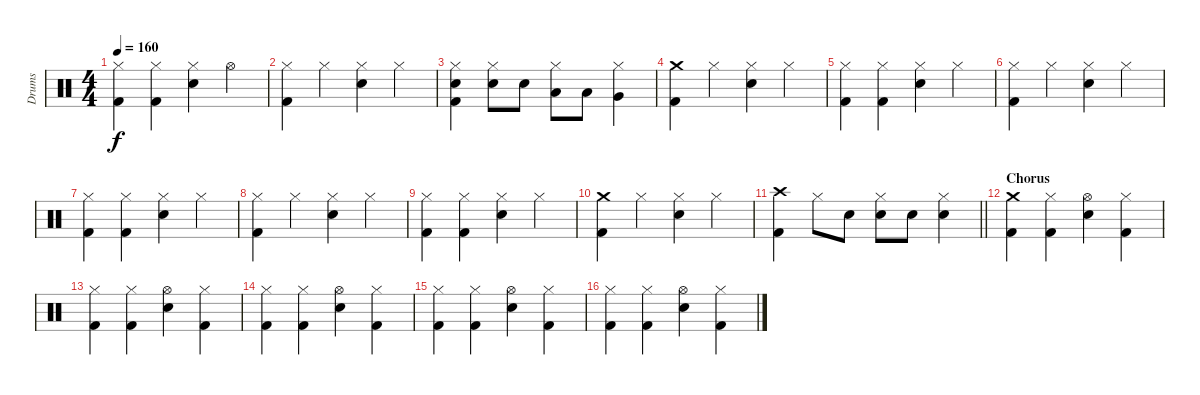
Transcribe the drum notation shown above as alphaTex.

\track ("Drums" "Drums") {instrument percussion}
\staff {score}
\articulation defaults
\ts (4 4)
\tempo 160
\clef neutral
\ks c
("Hi-Hat (closed)" "Kick (hit) 2").4{dy f} ("Hi-Hat (closed)" "Kick (hit) 2").4 ("Hi-Hat (closed)" "Snare (hit) 2").4 "Hi-Hat (open)".4 |
("Hi-Hat (closed)" "Kick (hit) 2").4 "Hi-Hat (closed)".4 ("Hi-Hat (closed)" "Snare (hit) 2").4 "Hi-Hat (closed)".4 |
("Hi-Hat (closed)" "Snare (hit) 2" "Kick (hit) 2").4 ("Hi-Hat (closed)" "Snare (hit) 2").8 "Snare (hit) 2".8 ("Hi-Hat (closed)" "Low Tom (hit)").8 "Low Floor Tom (hit)".8 ("Hi-Hat (closed)" "Very Low Tom (hit)").4 |
("Crash medium (hit)" "Kick (hit) 2").4 "Hi-Hat (closed)".4 ("Hi-Hat (closed)" "Snare (hit) 2").4 "Hi-Hat (closed)".4 |
("Hi-Hat (closed)" "Kick (hit) 2").4 ("Hi-Hat (closed)" "Kick (hit) 2").4 ("Hi-Hat (closed)" "Snare (hit) 2").4 "Hi-Hat (closed)".4 |
("Hi-Hat (closed)" "Kick (hit) 2").4 "Hi-Hat (closed)".4 ("Hi-Hat (closed)" "Snare (hit) 2").4 "Hi-Hat (closed)".4 |
("Hi-Hat (closed)" "Kick (hit) 2").4 ("Hi-Hat (closed)" "Kick (hit) 2").4 ("Hi-Hat (closed)" "Snare (hit) 2").4 "Hi-Hat (closed)".4 |
("Hi-Hat (closed)" "Kick (hit) 2").4 "Hi-Hat (closed)".4 ("Hi-Hat (closed)" "Snare (hit) 2").4 "Hi-Hat (closed)".4 |
("Hi-Hat (closed)" "Kick (hit) 2").4 ("Hi-Hat (closed)" "Kick (hit) 2").4 ("Hi-Hat (closed)" "Snare (hit) 2").4 "Hi-Hat (closed)".4 |
("Crash medium (hit)" "Kick (hit) 2").4 "Hi-Hat (closed)".4 ("Hi-Hat (closed)" "Snare (hit) 2").4 "Hi-Hat (closed)".4 |
\barLineRight lightlight
("Crash high (hit)" "Kick (hit) 2").4 "Hi-Hat (closed)".8 "Snare (hit) 2".8 ("Hi-Hat (closed)" "Snare (hit) 2").8 "Snare (hit) 2".8 ("Hi-Hat (closed)" "Snare (hit) 2").4 |
\section ("" "Chorus")
("Crash medium (hit)" "Kick (hit) 2").4 ("Hi-Hat (closed)" "Kick (hit) 2").4 ("Hi-Hat (open)" "Snare (hit) 2").4 ("Hi-Hat (closed)" "Kick (hit) 2").4 |
("Hi-Hat (closed)" "Kick (hit) 2").4 ("Hi-Hat (closed)" "Kick (hit) 2").4 ("Hi-Hat (open)" "Snare (hit) 2").4 ("Hi-Hat (closed)" "Kick (hit) 2").4 |
("Hi-Hat (closed)" "Kick (hit) 2").4 ("Hi-Hat (closed)" "Kick (hit) 2").4 ("Hi-Hat (open)" "Snare (hit) 2").4 ("Hi-Hat (closed)" "Kick (hit) 2").4 |
("Hi-Hat (closed)" "Kick (hit) 2").4 ("Hi-Hat (closed)" "Kick (hit) 2").4 ("Hi-Hat (open)" "Snare (hit) 2").4 ("Hi-Hat (closed)" "Kick (hit) 2").4 |
("Hi-Hat (closed)" "Kick (hit) 2").4 ("Hi-Hat (closed)" "Kick (hit) 2").4 ("Hi-Hat (open)" "Snare (hit) 2").4 ("Hi-Hat (closed)" "Kick (hit) 2").4
